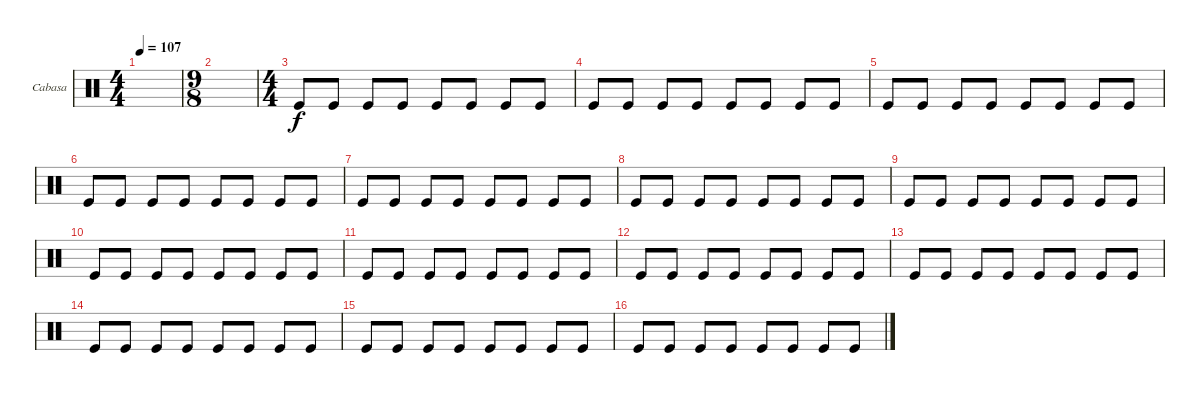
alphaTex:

\defaultSystemsLayout 4
\bracketExtendMode groupsimilarinstruments
\firstSystemTrackNameOrientation horizontal
\otherSystemsTrackNameOrientation horizontal
\track ("Cabasa" "Cabasa") {instrument percussion}
\staff {score}
\articulation defaults
\ts (4 4)
\tempo 107
\clef neutral
\scale
0.474178
\ks c
|
\ts (9 8)
\scale
0.262911 |
\ts (4 4)
\scale
0.262911 "Kick (hit)".8 "Kick (hit)".8 "Kick (hit)".8 "Kick (hit)".8 "Kick (hit)".8 "Kick (hit)".8 "Kick (hit)".8 "Kick (hit)".8 |
\scale
0.333333 "Kick (hit)".8 "Kick (hit)".8 "Kick (hit)".8 "Kick (hit)".8 "Kick (hit)".8 "Kick (hit)".8 "Kick (hit)".8 "Kick (hit)".8 |
\scale
0.333333 "Kick (hit)".8 "Kick (hit)".8 "Kick (hit)".8 "Kick (hit)".8 "Kick (hit)".8 "Kick (hit)".8 "Kick (hit)".8 "Kick (hit)".8 |
\scale
0.333333 "Kick (hit)".8 "Kick (hit)".8 "Kick (hit)".8 "Kick (hit)".8 "Kick (hit)".8 "Kick (hit)".8 "Kick (hit)".8 "Kick (hit)".8 |
\scale
0.333333 "Kick (hit)".8 "Kick (hit)".8 "Kick (hit)".8 "Kick (hit)".8 "Kick (hit)".8 "Kick (hit)".8 "Kick (hit)".8 "Kick (hit)".8 |
\scale
0.333333 "Kick (hit)".8 "Kick (hit)".8 "Kick (hit)".8 "Kick (hit)".8 "Kick (hit)".8 "Kick (hit)".8 "Kick (hit)".8 "Kick (hit)".8 |
\scale
0.333333 "Kick (hit)".8 "Kick (hit)".8 "Kick (hit)".8 "Kick (hit)".8 "Kick (hit)".8 "Kick (hit)".8 "Kick (hit)".8 "Kick (hit)".8 |
\scale
0.333333 "Kick (hit)".8 "Kick (hit)".8 "Kick (hit)".8 "Kick (hit)".8 "Kick (hit)".8 "Kick (hit)".8 "Kick (hit)".8 "Kick (hit)".8 |
\scale
0.333333 "Kick (hit)".8 "Kick (hit)".8 "Kick (hit)".8 "Kick (hit)".8 "Kick (hit)".8 "Kick (hit)".8 "Kick (hit)".8 "Kick (hit)".8 |
\scale
0.333333 "Kick (hit)".8 "Kick (hit)".8 "Kick (hit)".8 "Kick (hit)".8 "Kick (hit)".8 "Kick (hit)".8 "Kick (hit)".8 "Kick (hit)".8 |
\scale
0.333333 "Kick (hit)".8 "Kick (hit)".8 "Kick (hit)".8 "Kick (hit)".8 "Kick (hit)".8 "Kick (hit)".8 "Kick (hit)".8 "Kick (hit)".8 |
\scale
0.333333 "Kick (hit)".8 "Kick (hit)".8 "Kick (hit)".8 "Kick (hit)".8 "Kick (hit)".8 "Kick (hit)".8 "Kick (hit)".8 "Kick (hit)".8 |
\scale
0.333333 "Kick (hit)".8 "Kick (hit)".8 "Kick (hit)".8 "Kick (hit)".8 "Kick (hit)".8 "Kick (hit)".8 "Kick (hit)".8 "Kick (hit)".8 |
\scale
0.333333 "Kick (hit)".8 "Kick (hit)".8 "Kick (hit)".8 "Kick (hit)".8 "Kick (hit)".8 "Kick (hit)".8 "Kick (hit)".8 "Kick (hit)".8
